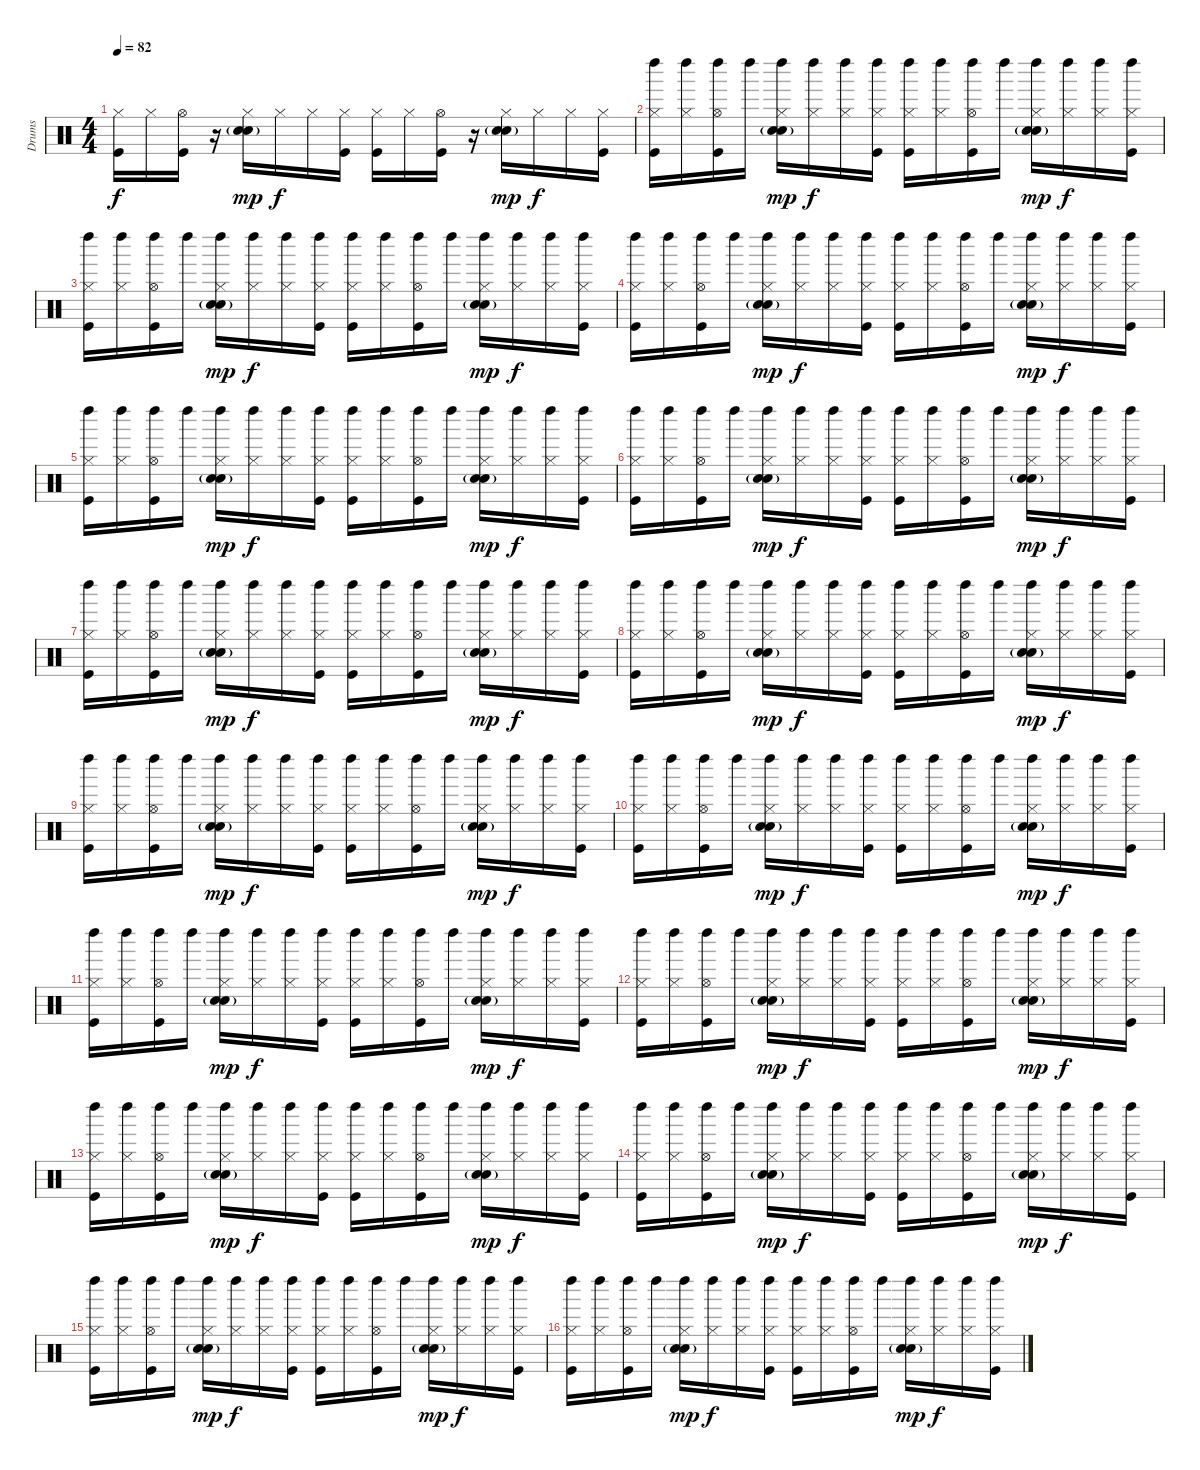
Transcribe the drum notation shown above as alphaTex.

\track ("Drums" "Drums") {instrument percussion}
\staff {score}
\articulation defaults
\ts (4 4)
\tempo 82
\clef neutral
\ks c
("Hi-Hat (closed)" "Kick (hit)").16{dy f} "Hi-Hat (closed)".16 ("Hi-Hat (open)" "Kick (hit)").16 r.16 ("Hi-Hat (closed)" "Hand Clap (hit)" "Electric Snare (hit)"{g}).16{dy mp} "Hi-Hat (closed)".16{dy f} "Hi-Hat (closed)".16 ("Hi-Hat (closed)" "Kick (hit)").16 ("Hi-Hat (closed)" "Kick (hit)").16 "Hi-Hat (closed)".16 ("Hi-Hat (open)" "Kick (hit)").16 r.16 ("Hi-Hat (closed)" "Hand Clap (hit)" "Electric Snare (hit)"{g}).16{dy mp} "Hi-Hat (closed)".16{dy f} "Hi-Hat (closed)".16 ("Hi-Hat (closed)" "Kick (hit)").16 |
("Left Maraca (hit)" "Hi-Hat (closed)" "Kick (hit)").16 ("Left Maraca (hit)" "Hi-Hat (closed)").16 ("Left Maraca (hit)" "Hi-Hat (open)" "Kick (hit)").16 "Left Maraca (hit)".16 ("Left Maraca (hit)" "Hi-Hat (closed)" "Hand Clap (hit)" "Electric Snare (hit)"{g}).16{dy mp} ("Left Maraca (hit)" "Hi-Hat (closed)").16{dy f} ("Left Maraca (hit)" "Hi-Hat (closed)").16 ("Left Maraca (hit)" "Hi-Hat (closed)" "Kick (hit)").16 ("Left Maraca (hit)" "Hi-Hat (closed)" "Kick (hit)").16 ("Left Maraca (hit)" "Hi-Hat (closed)").16 ("Left Maraca (hit)" "Hi-Hat (open)" "Kick (hit)").16 "Left Maraca (hit)".16 ("Left Maraca (hit)" "Hi-Hat (closed)" "Hand Clap (hit)" "Electric Snare (hit)"{g}).16{dy mp} ("Left Maraca (hit)" "Hi-Hat (closed)").16{dy f} ("Left Maraca (hit)" "Hi-Hat (closed)").16 ("Left Maraca (hit)" "Hi-Hat (closed)" "Kick (hit)").16 |
("Left Maraca (hit)" "Hi-Hat (closed)" "Kick (hit)").16 ("Left Maraca (hit)" "Hi-Hat (closed)").16 ("Left Maraca (hit)" "Hi-Hat (open)" "Kick (hit)").16 "Left Maraca (hit)".16 ("Left Maraca (hit)" "Hi-Hat (closed)" "Hand Clap (hit)" "Electric Snare (hit)"{g}).16{dy mp} ("Left Maraca (hit)" "Hi-Hat (closed)").16{dy f} ("Left Maraca (hit)" "Hi-Hat (closed)").16 ("Left Maraca (hit)" "Hi-Hat (closed)" "Kick (hit)").16 ("Left Maraca (hit)" "Hi-Hat (closed)" "Kick (hit)").16 ("Left Maraca (hit)" "Hi-Hat (closed)").16 ("Left Maraca (hit)" "Hi-Hat (open)" "Kick (hit)").16 "Left Maraca (hit)".16 ("Left Maraca (hit)" "Hi-Hat (closed)" "Hand Clap (hit)" "Electric Snare (hit)"{g}).16{dy mp} ("Left Maraca (hit)" "Hi-Hat (closed)").16{dy f} ("Left Maraca (hit)" "Hi-Hat (closed)").16 ("Left Maraca (hit)" "Hi-Hat (closed)" "Kick (hit)").16 |
("Left Maraca (hit)" "Hi-Hat (closed)" "Kick (hit)").16 ("Left Maraca (hit)" "Hi-Hat (closed)").16 ("Left Maraca (hit)" "Hi-Hat (open)" "Kick (hit)").16 "Left Maraca (hit)".16 ("Left Maraca (hit)" "Hi-Hat (closed)" "Hand Clap (hit)" "Electric Snare (hit)"{g}).16{dy mp} ("Left Maraca (hit)" "Hi-Hat (closed)").16{dy f} ("Left Maraca (hit)" "Hi-Hat (closed)").16 ("Left Maraca (hit)" "Hi-Hat (closed)" "Kick (hit)").16 ("Left Maraca (hit)" "Hi-Hat (closed)" "Kick (hit)").16 ("Left Maraca (hit)" "Hi-Hat (closed)").16 ("Left Maraca (hit)" "Hi-Hat (open)" "Kick (hit)").16 "Left Maraca (hit)".16 ("Left Maraca (hit)" "Hi-Hat (closed)" "Hand Clap (hit)" "Electric Snare (hit)"{g}).16{dy mp} ("Left Maraca (hit)" "Hi-Hat (closed)").16{dy f} ("Left Maraca (hit)" "Hi-Hat (closed)").16 ("Left Maraca (hit)" "Hi-Hat (closed)" "Kick (hit)").16 |
("Left Maraca (hit)" "Hi-Hat (closed)" "Kick (hit)").16 ("Left Maraca (hit)" "Hi-Hat (closed)").16 ("Left Maraca (hit)" "Hi-Hat (open)" "Kick (hit)").16 "Left Maraca (hit)".16 ("Left Maraca (hit)" "Hi-Hat (closed)" "Hand Clap (hit)" "Electric Snare (hit)"{g}).16{dy mp} ("Left Maraca (hit)" "Hi-Hat (closed)").16{dy f} ("Left Maraca (hit)" "Hi-Hat (closed)").16 ("Left Maraca (hit)" "Hi-Hat (closed)" "Kick (hit)").16 ("Left Maraca (hit)" "Hi-Hat (closed)" "Kick (hit)").16 ("Left Maraca (hit)" "Hi-Hat (closed)").16 ("Left Maraca (hit)" "Hi-Hat (open)" "Kick (hit)").16 "Left Maraca (hit)".16 ("Left Maraca (hit)" "Hi-Hat (closed)" "Hand Clap (hit)" "Electric Snare (hit)"{g}).16{dy mp} ("Left Maraca (hit)" "Hi-Hat (closed)").16{dy f} ("Left Maraca (hit)" "Hi-Hat (closed)").16 ("Left Maraca (hit)" "Hi-Hat (closed)" "Kick (hit)").16 |
("Left Maraca (hit)" "Hi-Hat (closed)" "Kick (hit)").16 ("Left Maraca (hit)" "Hi-Hat (closed)").16 ("Left Maraca (hit)" "Hi-Hat (open)" "Kick (hit)").16 "Left Maraca (hit)".16 ("Left Maraca (hit)" "Hi-Hat (closed)" "Hand Clap (hit)" "Electric Snare (hit)"{g}).16{dy mp} ("Left Maraca (hit)" "Hi-Hat (closed)").16{dy f} ("Left Maraca (hit)" "Hi-Hat (closed)").16 ("Left Maraca (hit)" "Hi-Hat (closed)" "Kick (hit)").16 ("Left Maraca (hit)" "Hi-Hat (closed)" "Kick (hit)").16 ("Left Maraca (hit)" "Hi-Hat (closed)").16 ("Left Maraca (hit)" "Hi-Hat (open)" "Kick (hit)").16 "Left Maraca (hit)".16 ("Left Maraca (hit)" "Hi-Hat (closed)" "Hand Clap (hit)" "Electric Snare (hit)"{g}).16{dy mp} ("Left Maraca (hit)" "Hi-Hat (closed)").16{dy f} ("Left Maraca (hit)" "Hi-Hat (closed)").16 ("Left Maraca (hit)" "Hi-Hat (closed)" "Kick (hit)").16 |
("Left Maraca (hit)" "Hi-Hat (closed)" "Kick (hit)").16 ("Left Maraca (hit)" "Hi-Hat (closed)").16 ("Left Maraca (hit)" "Hi-Hat (open)" "Kick (hit)").16 "Left Maraca (hit)".16 ("Left Maraca (hit)" "Hi-Hat (closed)" "Hand Clap (hit)" "Electric Snare (hit)"{g}).16{dy mp} ("Left Maraca (hit)" "Hi-Hat (closed)").16{dy f} ("Left Maraca (hit)" "Hi-Hat (closed)").16 ("Left Maraca (hit)" "Hi-Hat (closed)" "Kick (hit)").16 ("Left Maraca (hit)" "Hi-Hat (closed)" "Kick (hit)").16 ("Left Maraca (hit)" "Hi-Hat (closed)").16 ("Left Maraca (hit)" "Hi-Hat (open)" "Kick (hit)").16 "Left Maraca (hit)".16 ("Left Maraca (hit)" "Hi-Hat (closed)" "Hand Clap (hit)" "Electric Snare (hit)"{g}).16{dy mp} ("Left Maraca (hit)" "Hi-Hat (closed)").16{dy f} ("Left Maraca (hit)" "Hi-Hat (closed)").16 ("Left Maraca (hit)" "Hi-Hat (closed)" "Kick (hit)").16 |
("Left Maraca (hit)" "Hi-Hat (closed)" "Kick (hit)").16 ("Left Maraca (hit)" "Hi-Hat (closed)").16 ("Left Maraca (hit)" "Hi-Hat (open)" "Kick (hit)").16 "Left Maraca (hit)".16 ("Left Maraca (hit)" "Hi-Hat (closed)" "Hand Clap (hit)" "Electric Snare (hit)"{g}).16{dy mp} ("Left Maraca (hit)" "Hi-Hat (closed)").16{dy f} ("Left Maraca (hit)" "Hi-Hat (closed)").16 ("Left Maraca (hit)" "Hi-Hat (closed)" "Kick (hit)").16 ("Left Maraca (hit)" "Hi-Hat (closed)" "Kick (hit)").16 ("Left Maraca (hit)" "Hi-Hat (closed)").16 ("Left Maraca (hit)" "Hi-Hat (open)" "Kick (hit)").16 "Left Maraca (hit)".16 ("Left Maraca (hit)" "Hi-Hat (closed)" "Hand Clap (hit)" "Electric Snare (hit)"{g}).16{dy mp} ("Left Maraca (hit)" "Hi-Hat (closed)").16{dy f} ("Left Maraca (hit)" "Hi-Hat (closed)").16 ("Left Maraca (hit)" "Hi-Hat (closed)" "Kick (hit)").16 |
("Left Maraca (hit)" "Hi-Hat (closed)" "Kick (hit)").16 ("Left Maraca (hit)" "Hi-Hat (closed)").16 ("Left Maraca (hit)" "Hi-Hat (open)" "Kick (hit)").16 "Left Maraca (hit)".16 ("Left Maraca (hit)" "Hi-Hat (closed)" "Hand Clap (hit)" "Electric Snare (hit)"{g}).16{dy mp} ("Left Maraca (hit)" "Hi-Hat (closed)").16{dy f} ("Left Maraca (hit)" "Hi-Hat (closed)").16 ("Left Maraca (hit)" "Hi-Hat (closed)" "Kick (hit)").16 ("Left Maraca (hit)" "Hi-Hat (closed)" "Kick (hit)").16 ("Left Maraca (hit)" "Hi-Hat (closed)").16 ("Left Maraca (hit)" "Hi-Hat (open)" "Kick (hit)").16 "Left Maraca (hit)".16 ("Left Maraca (hit)" "Hi-Hat (closed)" "Hand Clap (hit)" "Electric Snare (hit)"{g}).16{dy mp} ("Left Maraca (hit)" "Hi-Hat (closed)").16{dy f} ("Left Maraca (hit)" "Hi-Hat (closed)").16 ("Left Maraca (hit)" "Hi-Hat (closed)" "Kick (hit)").16 |
("Left Maraca (hit)" "Hi-Hat (closed)" "Kick (hit)").16 ("Left Maraca (hit)" "Hi-Hat (closed)").16 ("Left Maraca (hit)" "Hi-Hat (open)" "Kick (hit)").16 "Left Maraca (hit)".16 ("Left Maraca (hit)" "Hi-Hat (closed)" "Hand Clap (hit)" "Electric Snare (hit)"{g}).16{dy mp} ("Left Maraca (hit)" "Hi-Hat (closed)").16{dy f} ("Left Maraca (hit)" "Hi-Hat (closed)").16 ("Left Maraca (hit)" "Hi-Hat (closed)" "Kick (hit)").16 ("Left Maraca (hit)" "Hi-Hat (closed)" "Kick (hit)").16 ("Left Maraca (hit)" "Hi-Hat (closed)").16 ("Left Maraca (hit)" "Hi-Hat (open)" "Kick (hit)").16 "Left Maraca (hit)".16 ("Left Maraca (hit)" "Hi-Hat (closed)" "Hand Clap (hit)" "Electric Snare (hit)"{g}).16{dy mp} ("Left Maraca (hit)" "Hi-Hat (closed)").16{dy f} ("Left Maraca (hit)" "Hi-Hat (closed)").16 ("Left Maraca (hit)" "Hi-Hat (closed)" "Kick (hit)").16 |
("Left Maraca (hit)" "Hi-Hat (closed)" "Kick (hit)").16 ("Left Maraca (hit)" "Hi-Hat (closed)").16 ("Left Maraca (hit)" "Hi-Hat (open)" "Kick (hit)").16 "Left Maraca (hit)".16 ("Left Maraca (hit)" "Hi-Hat (closed)" "Hand Clap (hit)" "Electric Snare (hit)"{g}).16{dy mp} ("Left Maraca (hit)" "Hi-Hat (closed)").16{dy f} ("Left Maraca (hit)" "Hi-Hat (closed)").16 ("Left Maraca (hit)" "Hi-Hat (closed)" "Kick (hit)").16 ("Left Maraca (hit)" "Hi-Hat (closed)" "Kick (hit)").16 ("Left Maraca (hit)" "Hi-Hat (closed)").16 ("Left Maraca (hit)" "Hi-Hat (open)" "Kick (hit)").16 "Left Maraca (hit)".16 ("Left Maraca (hit)" "Hi-Hat (closed)" "Hand Clap (hit)" "Electric Snare (hit)"{g}).16{dy mp} ("Left Maraca (hit)" "Hi-Hat (closed)").16{dy f} ("Left Maraca (hit)" "Hi-Hat (closed)").16 ("Left Maraca (hit)" "Hi-Hat (closed)" "Kick (hit)").16 |
("Left Maraca (hit)" "Hi-Hat (closed)" "Kick (hit)").16 ("Left Maraca (hit)" "Hi-Hat (closed)").16 ("Left Maraca (hit)" "Hi-Hat (open)" "Kick (hit)").16 "Left Maraca (hit)".16 ("Left Maraca (hit)" "Hi-Hat (closed)" "Hand Clap (hit)" "Electric Snare (hit)"{g}).16{dy mp} ("Left Maraca (hit)" "Hi-Hat (closed)").16{dy f} ("Left Maraca (hit)" "Hi-Hat (closed)").16 ("Left Maraca (hit)" "Hi-Hat (closed)" "Kick (hit)").16 ("Left Maraca (hit)" "Hi-Hat (closed)" "Kick (hit)").16 ("Left Maraca (hit)" "Hi-Hat (closed)").16 ("Left Maraca (hit)" "Hi-Hat (open)" "Kick (hit)").16 "Left Maraca (hit)".16 ("Left Maraca (hit)" "Hi-Hat (closed)" "Hand Clap (hit)" "Electric Snare (hit)"{g}).16{dy mp} ("Left Maraca (hit)" "Hi-Hat (closed)").16{dy f} ("Left Maraca (hit)" "Hi-Hat (closed)").16 ("Left Maraca (hit)" "Hi-Hat (closed)" "Kick (hit)").16 |
("Left Maraca (hit)" "Hi-Hat (closed)" "Kick (hit)").16 ("Left Maraca (hit)" "Hi-Hat (closed)").16 ("Left Maraca (hit)" "Hi-Hat (open)" "Kick (hit)").16 "Left Maraca (hit)".16 ("Left Maraca (hit)" "Hi-Hat (closed)" "Hand Clap (hit)" "Electric Snare (hit)"{g}).16{dy mp} ("Left Maraca (hit)" "Hi-Hat (closed)").16{dy f} ("Left Maraca (hit)" "Hi-Hat (closed)").16 ("Left Maraca (hit)" "Hi-Hat (closed)" "Kick (hit)").16 ("Left Maraca (hit)" "Hi-Hat (closed)" "Kick (hit)").16 ("Left Maraca (hit)" "Hi-Hat (closed)").16 ("Left Maraca (hit)" "Hi-Hat (open)" "Kick (hit)").16 "Left Maraca (hit)".16 ("Left Maraca (hit)" "Hi-Hat (closed)" "Hand Clap (hit)" "Electric Snare (hit)"{g}).16{dy mp} ("Left Maraca (hit)" "Hi-Hat (closed)").16{dy f} ("Left Maraca (hit)" "Hi-Hat (closed)").16 ("Left Maraca (hit)" "Hi-Hat (closed)" "Kick (hit)").16 |
("Left Maraca (hit)" "Hi-Hat (closed)" "Kick (hit)").16 ("Left Maraca (hit)" "Hi-Hat (closed)").16 ("Left Maraca (hit)" "Hi-Hat (open)" "Kick (hit)").16 "Left Maraca (hit)".16 ("Left Maraca (hit)" "Hi-Hat (closed)" "Hand Clap (hit)" "Electric Snare (hit)"{g}).16{dy mp} ("Left Maraca (hit)" "Hi-Hat (closed)").16{dy f} ("Left Maraca (hit)" "Hi-Hat (closed)").16 ("Left Maraca (hit)" "Hi-Hat (closed)" "Kick (hit)").16 ("Left Maraca (hit)" "Hi-Hat (closed)" "Kick (hit)").16 ("Left Maraca (hit)" "Hi-Hat (closed)").16 ("Left Maraca (hit)" "Hi-Hat (open)" "Kick (hit)").16 "Left Maraca (hit)".16 ("Left Maraca (hit)" "Hi-Hat (closed)" "Hand Clap (hit)" "Electric Snare (hit)"{g}).16{dy mp} ("Left Maraca (hit)" "Hi-Hat (closed)").16{dy f} ("Left Maraca (hit)" "Hi-Hat (closed)").16 ("Left Maraca (hit)" "Hi-Hat (closed)" "Kick (hit)").16 |
("Left Maraca (hit)" "Hi-Hat (closed)" "Kick (hit)").16 ("Left Maraca (hit)" "Hi-Hat (closed)").16 ("Left Maraca (hit)" "Hi-Hat (open)" "Kick (hit)").16 "Left Maraca (hit)".16 ("Left Maraca (hit)" "Hi-Hat (closed)" "Hand Clap (hit)" "Electric Snare (hit)"{g}).16{dy mp} ("Left Maraca (hit)" "Hi-Hat (closed)").16{dy f} ("Left Maraca (hit)" "Hi-Hat (closed)").16 ("Left Maraca (hit)" "Hi-Hat (closed)" "Kick (hit)").16 ("Left Maraca (hit)" "Hi-Hat (closed)" "Kick (hit)").16 ("Left Maraca (hit)" "Hi-Hat (closed)").16 ("Left Maraca (hit)" "Hi-Hat (open)" "Kick (hit)").16 "Left Maraca (hit)".16 ("Left Maraca (hit)" "Hi-Hat (closed)" "Hand Clap (hit)" "Electric Snare (hit)"{g}).16{dy mp} ("Left Maraca (hit)" "Hi-Hat (closed)").16{dy f} ("Left Maraca (hit)" "Hi-Hat (closed)").16 ("Left Maraca (hit)" "Hi-Hat (closed)" "Kick (hit)").16 |
("Left Maraca (hit)" "Hi-Hat (closed)" "Kick (hit)").16 ("Left Maraca (hit)" "Hi-Hat (closed)").16 ("Left Maraca (hit)" "Hi-Hat (open)" "Kick (hit)").16 "Left Maraca (hit)".16 ("Left Maraca (hit)" "Hi-Hat (closed)" "Hand Clap (hit)" "Electric Snare (hit)"{g}).16{dy mp} ("Left Maraca (hit)" "Hi-Hat (closed)").16{dy f} ("Left Maraca (hit)" "Hi-Hat (closed)").16 ("Left Maraca (hit)" "Hi-Hat (closed)" "Kick (hit)").16 ("Left Maraca (hit)" "Hi-Hat (closed)" "Kick (hit)").16 ("Left Maraca (hit)" "Hi-Hat (closed)").16 ("Left Maraca (hit)" "Hi-Hat (open)" "Kick (hit)").16 "Left Maraca (hit)".16 ("Left Maraca (hit)" "Hi-Hat (closed)" "Hand Clap (hit)" "Electric Snare (hit)"{g}).16{dy mp} ("Left Maraca (hit)" "Hi-Hat (closed)").16{dy f} ("Left Maraca (hit)" "Hi-Hat (closed)").16 ("Left Maraca (hit)" "Hi-Hat (closed)" "Kick (hit)").16
